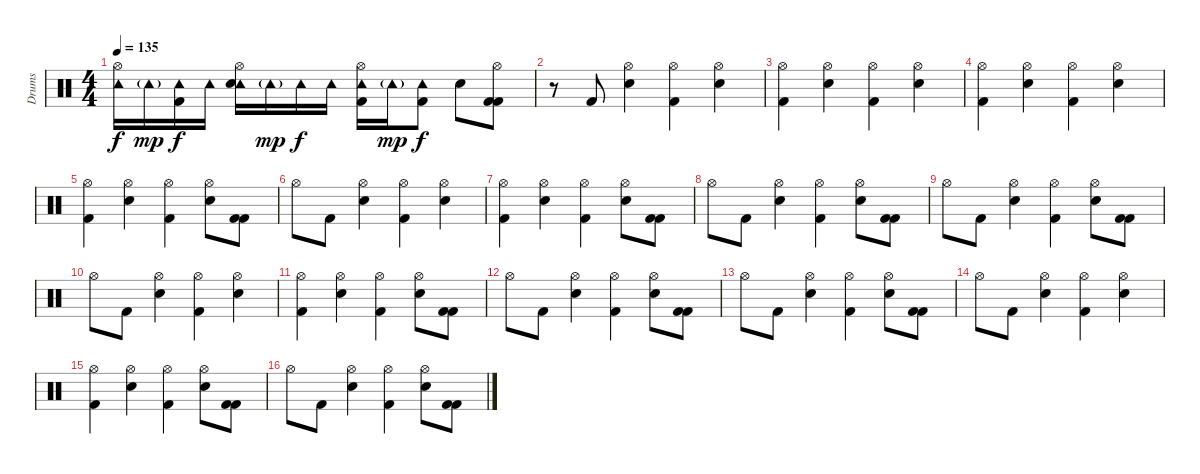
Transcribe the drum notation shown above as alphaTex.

\track ("Drums" "Drums") {instrument percussion}
\staff {score}
\articulation defaults
\ts (4 4)
\tempo 135
\clef neutral
\ks c
("Hi-Hat (open)" "Tambourine (hit)").16{dy f} "Tambourine (hit)"{g}.16{dy mp} ("Tambourine (hit)" "Kick (hit) 2").16{dy f} "Tambourine (hit)".16 ("Hi-Hat (open)" "Tambourine (hit)" "Electric Snare (hit)").16 "Tambourine (hit)"{g}.16{dy mp} "Tambourine (hit)".16{dy f} "Tambourine (hit)".16 ("Hi-Hat (open)" "Tambourine (hit)" "Kick (hit) 2").16 "Tambourine (hit)"{g}.16{dy mp} ("Tambourine (hit)" "Kick (hit) 2").8{dy f} "Electric Snare (hit)".8 ("Hi-Hat (open)" "Kick (hit) 2" "Kick (hit) 2").8 |
r.8 "Kick (hit) 2".8 ("Hi-Hat (open)" "Electric Snare (hit)").4 ("Hi-Hat (open)" "Kick (hit) 2").4 ("Hi-Hat (open)" "Electric Snare (hit)").4 |
("Hi-Hat (open)" "Kick (hit) 2").4 ("Hi-Hat (open)" "Electric Snare (hit)").4 ("Hi-Hat (open)" "Kick (hit) 2").4 ("Hi-Hat (open)" "Electric Snare (hit)").4 |
("Hi-Hat (open)" "Kick (hit) 2").4 ("Hi-Hat (open)" "Electric Snare (hit)").4 ("Hi-Hat (open)" "Kick (hit) 2").4 ("Hi-Hat (open)" "Electric Snare (hit)").4 |
("Hi-Hat (open)" "Kick (hit) 2").4 ("Hi-Hat (open)" "Electric Snare (hit)").4 ("Hi-Hat (open)" "Kick (hit) 2").4 ("Hi-Hat (open)" "Electric Snare (hit)").8 ("Kick (hit) 2" "Kick (hit) 2").8 |
"Hi-Hat (open)".8 "Kick (hit) 2".8 ("Hi-Hat (open)" "Electric Snare (hit)").4 ("Hi-Hat (open)" "Kick (hit) 2").4 ("Hi-Hat (open)" "Electric Snare (hit)").4 |
("Hi-Hat (open)" "Kick (hit) 2").4 ("Hi-Hat (open)" "Electric Snare (hit)").4 ("Hi-Hat (open)" "Kick (hit) 2").4 ("Hi-Hat (open)" "Electric Snare (hit)").8 ("Kick (hit) 2" "Kick (hit) 2").8 |
"Hi-Hat (open)".8 "Kick (hit) 2".8 ("Hi-Hat (open)" "Electric Snare (hit)").4 ("Hi-Hat (open)" "Kick (hit) 2").4 ("Hi-Hat (open)" "Electric Snare (hit)").8 ("Kick (hit) 2" "Kick (hit) 2").8 |
"Hi-Hat (open)".8 "Kick (hit) 2".8 ("Hi-Hat (open)" "Electric Snare (hit)").4 ("Hi-Hat (open)" "Kick (hit) 2").4 ("Hi-Hat (open)" "Electric Snare (hit)").8 ("Kick (hit) 2" "Kick (hit) 2").8 |
"Hi-Hat (open)".8 "Kick (hit) 2".8 ("Hi-Hat (open)" "Electric Snare (hit)").4 ("Hi-Hat (open)" "Kick (hit) 2").4 ("Hi-Hat (open)" "Electric Snare (hit)").4 |
("Hi-Hat (open)" "Kick (hit) 2").4 ("Hi-Hat (open)" "Electric Snare (hit)").4 ("Hi-Hat (open)" "Kick (hit) 2").4 ("Hi-Hat (open)" "Electric Snare (hit)").8 ("Kick (hit) 2" "Kick (hit) 2").8 |
"Hi-Hat (open)".8 "Kick (hit) 2".8 ("Hi-Hat (open)" "Electric Snare (hit)").4 ("Hi-Hat (open)" "Kick (hit) 2").4 ("Hi-Hat (open)" "Electric Snare (hit)").8 ("Kick (hit) 2" "Kick (hit) 2").8 |
"Hi-Hat (open)".8 "Kick (hit) 2".8 ("Hi-Hat (open)" "Electric Snare (hit)").4 ("Hi-Hat (open)" "Kick (hit) 2").4 ("Hi-Hat (open)" "Electric Snare (hit)").8 ("Kick (hit) 2" "Kick (hit) 2").8 |
"Hi-Hat (open)".8 "Kick (hit) 2".8 ("Hi-Hat (open)" "Electric Snare (hit)").4 ("Hi-Hat (open)" "Kick (hit) 2").4 ("Hi-Hat (open)" "Electric Snare (hit)").4 |
("Hi-Hat (open)" "Kick (hit) 2").4 ("Hi-Hat (open)" "Electric Snare (hit)").4 ("Hi-Hat (open)" "Kick (hit) 2").4 ("Hi-Hat (open)" "Electric Snare (hit)").8 ("Kick (hit) 2" "Kick (hit) 2").8 |
"Hi-Hat (open)".8 "Kick (hit) 2".8 ("Hi-Hat (open)" "Electric Snare (hit)").4 ("Hi-Hat (open)" "Kick (hit) 2").4 ("Hi-Hat (open)" "Electric Snare (hit)").8 ("Kick (hit) 2" "Kick (hit) 2").8
